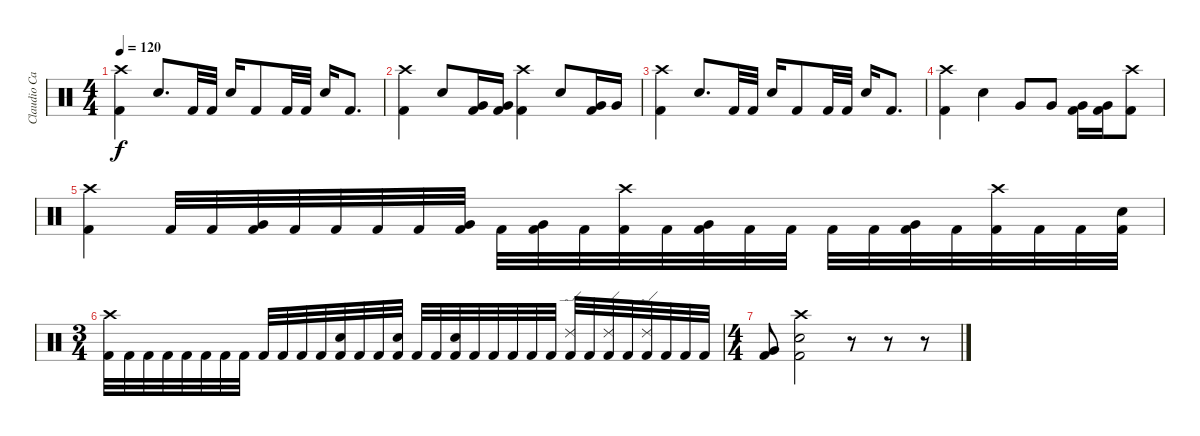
\track ("Claudio Cardacci" "Claudio Ca") {instrument percussion}
\staff {score}
\articulation defaults
\ts (4 4)
\tempo 120
\clef neutral
\ks c
("Crash high (hit)" "Kick (hit) 2").4{dy f} "Snare (hit) 2".8{d} "Kick (hit) 2".32 "Kick (hit) 2".32 "Snare (hit) 2".16 "Kick (hit) 2".8 "Kick (hit) 2".32 "Kick (hit) 2".32 "Snare (hit) 2".16 "Kick (hit) 2".8{d} |
("Crash high (hit)" "Kick (hit) 2").4 "Snare (hit) 2".8 ("Very Low Tom (hit)" "Kick (hit) 2").16 ("Very Low Tom (hit)" "Kick (hit) 2").16 ("Crash high (hit)" "Kick (hit) 2").4 "Snare (hit) 2".8 ("Very Low Tom (hit)" "Kick (hit) 2").16 "Very Low Tom (hit)".16 |
("Crash high (hit)" "Kick (hit) 2").4 "Snare (hit) 2".8{d} "Kick (hit) 2".32 "Kick (hit) 2".32 "Snare (hit) 2".16 "Kick (hit) 2".8 "Kick (hit) 2".32 "Kick (hit) 2".32 "Snare (hit) 2".16 "Kick (hit) 2".8{d} |
("Crash high (hit)" "Kick (hit) 2").4 "Snare (hit) 2".4 "Very Low Tom (hit)".8 "Very Low Tom (hit)".8 ("Very Low Tom (hit)" "Kick (hit) 2").16 ("Very Low Tom (hit)" "Kick (hit) 2").16 ("Crash high (hit)" "Kick (hit) 2").8 |
("Crash high (hit)" "Kick (hit) 2").4 "Kick (hit) 2".32 "Kick (hit) 2".32 ("Very Low Tom (hit)" "Kick (hit) 2").32 "Kick (hit) 2".32 "Kick (hit) 2".32 "Kick (hit) 2".32 "Kick (hit) 2".32 ("Very Low Tom (hit)" "Kick (hit) 2").32 "Kick (hit) 2".32 ("Very Low Tom (hit)" "Kick (hit) 2").32 "Kick (hit) 2".32 ("Crash high (hit)" "Kick (hit) 2").32 "Kick (hit) 2".32 ("Very Low Tom (hit)" "Kick (hit) 2").32 "Kick (hit) 2".32 "Kick (hit) 2".32 "Kick (hit) 2".32 "Kick (hit) 2".32 ("Very Low Tom (hit)" "Kick (hit) 2").32 "Kick (hit) 2".32 ("Crash high (hit)" "Kick (hit) 2").32 "Kick (hit) 2".32 "Kick (hit) 2".32 ("Snare (hit) 2" "Kick (hit) 2").32 |
\ts (3 4)
("Crash high (hit)" "Kick (hit) 2").32 "Kick (hit) 2".32 "Kick (hit) 2".32 "Kick (hit) 2".32 "Kick (hit) 2".32 "Kick (hit) 2".32 "Kick (hit) 2".32 "Kick (hit) 2".32 "Kick (hit) 2".32 "Kick (hit) 2".32 "Kick (hit) 2".32 "Kick (hit) 2".32 ("Snare (hit) 2" "Kick (hit) 2").32 "Kick (hit) 2".32 "Kick (hit) 2".32 ("Snare (hit) 2" "Kick (hit) 2").32 "Kick (hit) 2".32 "Kick (hit) 2".32 ("Snare (hit) 2" "Kick (hit) 2").32 "Kick (hit) 2".32 "Kick (hit) 2".32 "Kick (hit) 2".32 "Kick (hit) 2".32 "Kick (hit) 2".32 ("Ride (edge) 2" "Kick (hit) 2").32 "Kick (hit) 2".32 ("Ride (edge) 2" "Kick (hit) 2").32 "Kick (hit) 2".32 ("Ride (edge) 2" "Kick (hit) 2").32 "Kick (hit) 2".32 "Kick (hit) 2".32 "Kick (hit) 2".32 |
\ts (4 4)
("Very Low Tom (hit)" "Kick (hit) 2").8 ("Crash high (hit)" "Snare (hit) 2" "Kick (hit) 2").2 r.8 r.8 r.8
